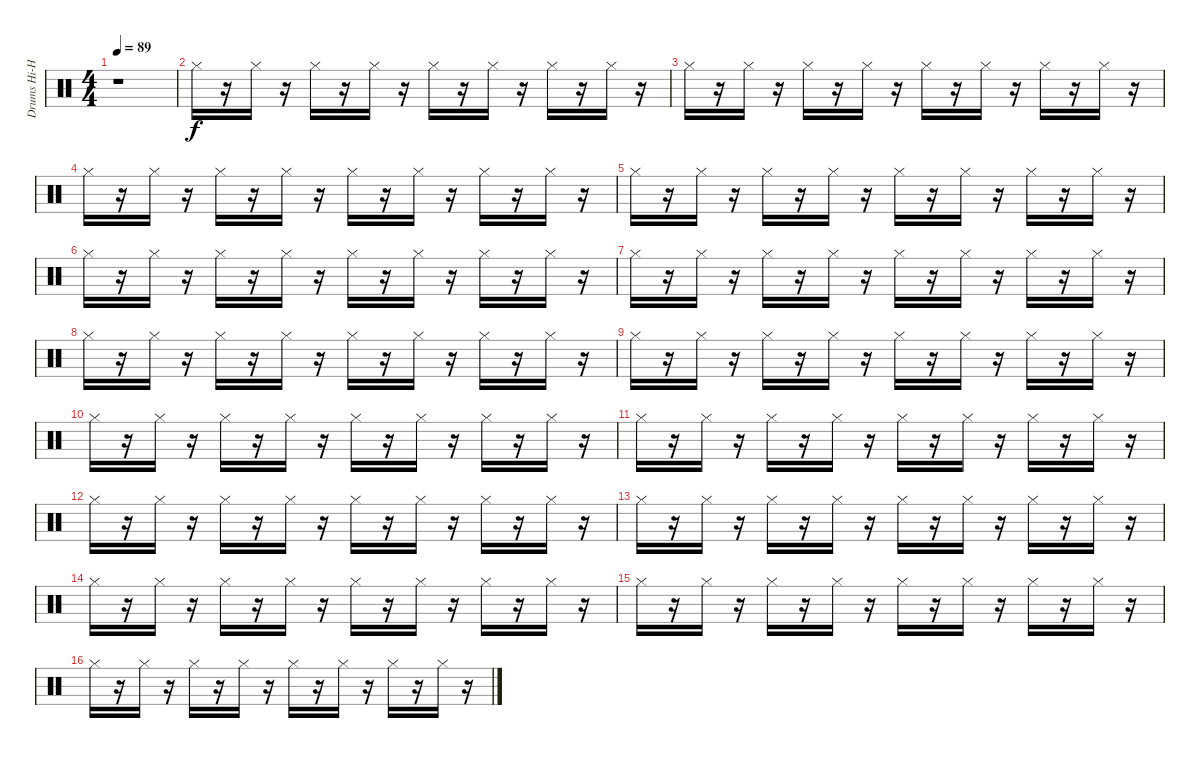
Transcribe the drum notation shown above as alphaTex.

\track ("Drums Hi-Hat closed" "Drums Hi-H") {instrument percussion}
\staff {score}
\articulation defaults
\ts (4 4)
\tempo 89
\clef neutral
\ks c
r.1{dy f} |
"Hi-Hat (closed)".16 r.16 "Hi-Hat (closed)".16 r.16 "Hi-Hat (closed)".16 r.16 "Hi-Hat (closed)".16 r.16 "Hi-Hat (closed)".16 r.16 "Hi-Hat (closed)".16 r.16 "Hi-Hat (closed)".16 r.16 "Hi-Hat (closed)".16 r.16 |
"Hi-Hat (closed)".16 r.16 "Hi-Hat (closed)".16 r.16 "Hi-Hat (closed)".16 r.16 "Hi-Hat (closed)".16 r.16 "Hi-Hat (closed)".16 r.16 "Hi-Hat (closed)".16 r.16 "Hi-Hat (closed)".16 r.16 "Hi-Hat (closed)".16 r.16 |
"Hi-Hat (closed)".16 r.16 "Hi-Hat (closed)".16 r.16 "Hi-Hat (closed)".16 r.16 "Hi-Hat (closed)".16 r.16 "Hi-Hat (closed)".16 r.16 "Hi-Hat (closed)".16 r.16 "Hi-Hat (closed)".16 r.16 "Hi-Hat (closed)".16 r.16 |
"Hi-Hat (closed)".16 r.16 "Hi-Hat (closed)".16 r.16 "Hi-Hat (closed)".16 r.16 "Hi-Hat (closed)".16 r.16 "Hi-Hat (closed)".16 r.16 "Hi-Hat (closed)".16 r.16 "Hi-Hat (closed)".16 r.16 "Hi-Hat (closed)".16 r.16 |
"Hi-Hat (closed)".16 r.16 "Hi-Hat (closed)".16 r.16 "Hi-Hat (closed)".16 r.16 "Hi-Hat (closed)".16 r.16 "Hi-Hat (closed)".16 r.16 "Hi-Hat (closed)".16 r.16 "Hi-Hat (closed)".16 r.16 "Hi-Hat (closed)".16 r.16 |
"Hi-Hat (closed)".16 r.16 "Hi-Hat (closed)".16 r.16 "Hi-Hat (closed)".16 r.16 "Hi-Hat (closed)".16 r.16 "Hi-Hat (closed)".16 r.16 "Hi-Hat (closed)".16 r.16 "Hi-Hat (closed)".16 r.16 "Hi-Hat (closed)".16 r.16 |
"Hi-Hat (closed)".16 r.16 "Hi-Hat (closed)".16 r.16 "Hi-Hat (closed)".16 r.16 "Hi-Hat (closed)".16 r.16 "Hi-Hat (closed)".16 r.16 "Hi-Hat (closed)".16 r.16 "Hi-Hat (closed)".16 r.16 "Hi-Hat (closed)".16 r.16 |
"Hi-Hat (closed)".16 r.16 "Hi-Hat (closed)".16 r.16 "Hi-Hat (closed)".16 r.16 "Hi-Hat (closed)".16 r.16 "Hi-Hat (closed)".16 r.16 "Hi-Hat (closed)".16 r.16 "Hi-Hat (closed)".16 r.16 "Hi-Hat (closed)".16 r.16 |
"Hi-Hat (closed)".16 r.16 "Hi-Hat (closed)".16 r.16 "Hi-Hat (closed)".16 r.16 "Hi-Hat (closed)".16 r.16 "Hi-Hat (closed)".16 r.16 "Hi-Hat (closed)".16 r.16 "Hi-Hat (closed)".16 r.16 "Hi-Hat (closed)".16 r.16 |
"Hi-Hat (closed)".16 r.16 "Hi-Hat (closed)".16 r.16 "Hi-Hat (closed)".16 r.16 "Hi-Hat (closed)".16 r.16 "Hi-Hat (closed)".16 r.16 "Hi-Hat (closed)".16 r.16 "Hi-Hat (closed)".16 r.16 "Hi-Hat (closed)".16 r.16 |
"Hi-Hat (closed)".16 r.16 "Hi-Hat (closed)".16 r.16 "Hi-Hat (closed)".16 r.16 "Hi-Hat (closed)".16 r.16 "Hi-Hat (closed)".16 r.16 "Hi-Hat (closed)".16 r.16 "Hi-Hat (closed)".16 r.16 "Hi-Hat (closed)".16 r.16 |
"Hi-Hat (closed)".16 r.16 "Hi-Hat (closed)".16 r.16 "Hi-Hat (closed)".16 r.16 "Hi-Hat (closed)".16 r.16 "Hi-Hat (closed)".16 r.16 "Hi-Hat (closed)".16 r.16 "Hi-Hat (closed)".16 r.16 "Hi-Hat (closed)".16 r.16 |
"Hi-Hat (closed)".16 r.16 "Hi-Hat (closed)".16 r.16 "Hi-Hat (closed)".16 r.16 "Hi-Hat (closed)".16 r.16 "Hi-Hat (closed)".16 r.16 "Hi-Hat (closed)".16 r.16 "Hi-Hat (closed)".16 r.16 "Hi-Hat (closed)".16 r.16 |
"Hi-Hat (closed)".16 r.16 "Hi-Hat (closed)".16 r.16 "Hi-Hat (closed)".16 r.16 "Hi-Hat (closed)".16 r.16 "Hi-Hat (closed)".16 r.16 "Hi-Hat (closed)".16 r.16 "Hi-Hat (closed)".16 r.16 "Hi-Hat (closed)".16 r.16 |
"Hi-Hat (closed)".16 r.16 "Hi-Hat (closed)".16 r.16 "Hi-Hat (closed)".16 r.16 "Hi-Hat (closed)".16 r.16 "Hi-Hat (closed)".16 r.16 "Hi-Hat (closed)".16 r.16 "Hi-Hat (closed)".16 r.16 "Hi-Hat (closed)".16 r.16
